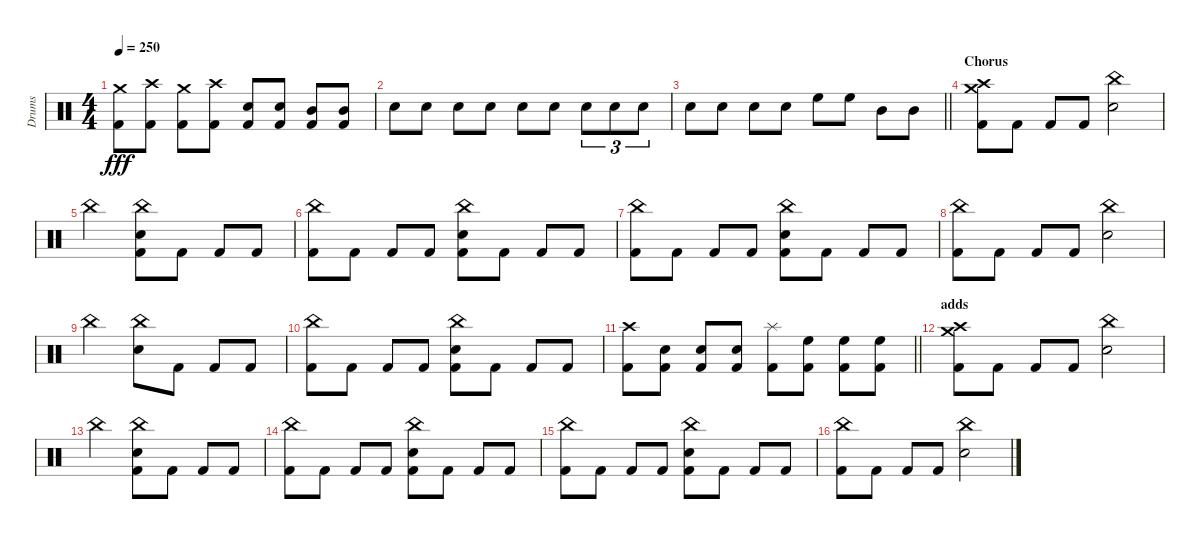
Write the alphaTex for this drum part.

\track ("Drums" "Drums") {solo instrument percussion}
\staff {score}
\articulation defaults
\ts (4 4)
\tempo 250
\clef neutral
\ks c
("Crash medium (hit)" "Kick (hit) 2").8{dy fff} ("Crash high (hit)" "Kick (hit) 2").8 ("Crash medium (hit)" "Kick (hit) 2").8 ("Crash high (hit)" "Kick (hit) 2").8 ("Snare (hit) 2" "Kick (hit) 2").8 ("Snare (hit) 2" "Kick (hit) 2").8 ("Mid Tom (hit)" "Kick (hit) 2").8 ("Mid Tom (hit)" "Kick (hit) 2").8 |
"Snare (hit) 2".8 "Snare (hit) 2".8 "Snare (hit) 2".8 "Snare (hit) 2".8 "Snare (hit) 2".8 "Snare (hit) 2".8 "Snare (hit) 2".8{tu (3 2)} "Snare (hit) 2".8{tu (3 2)} "Snare (hit) 2".8{tu (3 2)} |
\barLineRight lightlight "Snare (hit) 2".8 "Snare (hit) 2".8 "Snare (hit) 2".8 "Snare (hit) 2".8 "High Floor Tom (hit)".8 "High Floor Tom (hit)".8 "Mid Tom (hit)".8 "Mid Tom (hit)".8
|
\section ("" "Chorus")
("Crash high (hit)" "Crash medium (hit)" "Kick (hit) 2").8 "Kick (hit) 2".8 "Kick (hit) 2".8 "Kick (hit) 2".8 ("China (hit)" "Snare (hit) 2").2 |
"China (hit)".2 ("China (hit)" "Snare (hit) 2" "Kick (hit) 2").8 "Kick (hit) 2".8 "Kick (hit) 2".8 "Kick (hit) 2".8 |
("China (hit)" "Kick (hit) 2").8 "Kick (hit) 2".8 "Kick (hit) 2".8 "Kick (hit) 2".8 ("China (hit)" "Snare (hit) 2" "Kick (hit) 2").8 "Kick (hit) 2".8 "Kick (hit) 2".8 "Kick (hit) 2".8 |
("China (hit)" "Kick (hit) 2").8 "Kick (hit) 2".8 "Kick (hit) 2".8 "Kick (hit) 2".8 ("China (hit)" "Snare (hit) 2" "Kick (hit) 2").8 "Kick (hit) 2".8 "Kick (hit) 2".8 "Kick (hit) 2".8 |
("China (hit)" "Kick (hit) 2").8 "Kick (hit) 2".8 "Kick (hit) 2".8 "Kick (hit) 2".8 ("China (hit)" "Snare (hit) 2").2 |
"China (hit)".2 ("China (hit)" "Snare (hit) 2").8 "Kick (hit) 2".8 "Kick (hit) 2".8 "Kick (hit) 2".8 |
("China (hit)" "Kick (hit) 2").8 "Kick (hit) 2".8 "Kick (hit) 2".8 "Kick (hit) 2".8 ("China (hit)" "Snare (hit) 2" "Kick (hit) 2").8 "Kick (hit) 2".8 "Kick (hit) 2".8 "Kick (hit) 2".8 |
\barLineRight lightlight
("Crash high (hit)" "Kick (hit) 2").8 ("Snare (hit) 2" "Kick (hit) 2").8 ("Snare (hit) 2" "Kick (hit) 2").8 ("Snare (hit) 2" "Kick (hit) 2").8 ("Splash (hit)" "Kick (hit) 2").8 ("High Floor Tom (hit)" "Kick (hit) 2").8 ("High Floor Tom (hit)" "Kick (hit) 2").8 ("High Floor Tom (hit)" "Kick (hit) 2").8 |
\section ("" "adds")
("Crash high (hit)" "Crash medium (hit)" "Kick (hit) 2").8 "Kick (hit) 2".8 "Kick (hit) 2".8 "Kick (hit) 2".8 ("China (hit)" "Snare (hit) 2").2 |
"China (hit)".2 ("China (hit)" "Snare (hit) 2" "Kick (hit) 2").8 "Kick (hit) 2".8 "Kick (hit) 2".8 "Kick (hit) 2".8 |
("China (hit)" "Kick (hit) 2").8 "Kick (hit) 2".8 "Kick (hit) 2".8 "Kick (hit) 2".8 ("China (hit)" "Snare (hit) 2" "Kick (hit) 2").8 "Kick (hit) 2".8 "Kick (hit) 2".8 "Kick (hit) 2".8 |
("China (hit)" "Kick (hit) 2").8 "Kick (hit) 2".8 "Kick (hit) 2".8 "Kick (hit) 2".8 ("China (hit)" "Snare (hit) 2" "Kick (hit) 2").8 "Kick (hit) 2".8 "Kick (hit) 2".8 "Kick (hit) 2".8 |
("China (hit)" "Kick (hit) 2").8 "Kick (hit) 2".8 "Kick (hit) 2".8 "Kick (hit) 2".8 ("China (hit)" "Snare (hit) 2").2
